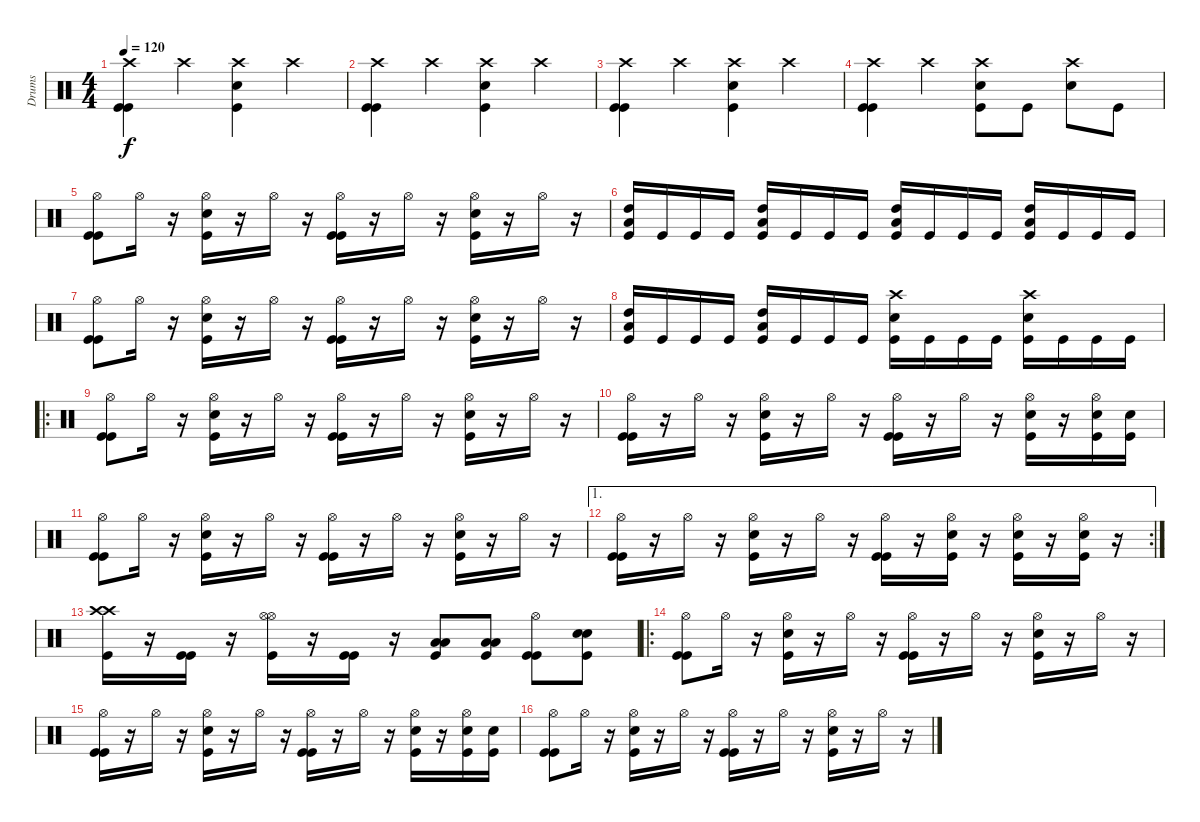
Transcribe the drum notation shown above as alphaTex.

\track ("Drums" "Drums") {instrument percussion}
\staff {score}
\articulation defaults
\ts (4 4)
\tempo 120
\clef neutral
\ks c
("Crash high (hit)" "Kick (hit)" "Kick (hit)").4{dy f} "Crash high (hit)".4 ("Crash high (hit)" "Snare (hit) 2" "Kick (hit)").4 "Crash high (hit)".4 |
("Crash high (hit)" "Kick (hit)" "Kick (hit)").4 "Crash high (hit)".4 ("Crash high (hit)" "Snare (hit) 2" "Kick (hit)").4 "Crash high (hit)".4 |
("Crash high (hit)" "Kick (hit)" "Kick (hit)").4 "Crash high (hit)".4 ("Crash high (hit)" "Snare (hit) 2" "Kick (hit)").4 "Crash high (hit)".4 |
("Crash high (hit)" "Kick (hit)" "Kick (hit)").4 "Crash high (hit)".4 ("Crash high (hit)" "Snare (hit) 2" "Kick (hit)").8 "Kick (hit)".8 ("Crash high (hit)" "Snare (hit) 2").8 "Kick (hit)".8 |
("Hi-Hat (open)" "Kick (hit)" "Kick (hit)").8 "Hi-Hat (open)".16 r.16 ("Hi-Hat (open)" "Snare (hit) 2" "Kick (hit)").16 r.16 "Hi-Hat (open)".16 r.16 ("Hi-Hat (open)" "Kick (hit)" "Kick (hit)").16 r.16 "Hi-Hat (open)".16 r.16 ("Hi-Hat (open)" "Snare (hit) 2" "Kick (hit)").16 r.16 "Hi-Hat (open)".16 r.16 |
("Low Tom (hit)" "High Tom (hit)" "Kick (hit)").16 "Kick (hit)".16 "Kick (hit)".16 "Kick (hit)".16 ("Low Tom (hit)" "High Tom (hit)" "Kick (hit)").16 "Kick (hit)".16 "Kick (hit)".16 "Kick (hit)".16 ("Low Tom (hit)" "High Tom (hit)" "Kick (hit)").16 "Kick (hit)".16 "Kick (hit)".16 "Kick (hit)".16 ("Low Tom (hit)" "High Tom (hit)" "Kick (hit)").16 "Kick (hit)".16 "Kick (hit)".16 "Kick (hit)".16 |
("Hi-Hat (open)" "Kick (hit)" "Kick (hit)").8 "Hi-Hat (open)".16 r.16 ("Hi-Hat (open)" "Snare (hit) 2" "Kick (hit)").16 r.16 "Hi-Hat (open)".16 r.16 ("Hi-Hat (open)" "Kick (hit)" "Kick (hit)").16 r.16 "Hi-Hat (open)".16 r.16 ("Hi-Hat (open)" "Snare (hit) 2" "Kick (hit)").16 r.16 "Hi-Hat (open)".16 r.16 |
("Low Tom (hit)" "High Tom (hit)" "Kick (hit)").16 "Kick (hit)".16 "Kick (hit)".16 "Kick (hit)".16 ("Low Tom (hit)" "High Tom (hit)" "Kick (hit)").16 "Kick (hit)".16 "Kick (hit)".16 "Kick (hit)".16 ("Crash high (hit)" "Snare (hit) 2" "Kick (hit)").16 "Kick (hit)".16 "Kick (hit)".16 "Kick (hit)".16 ("Crash high (hit)" "Snare (hit) 2" "Kick (hit)").16 "Kick (hit)".16 "Kick (hit)".16 "Kick (hit)".16 |
\ro
("Hi-Hat (open)" "Kick (hit)" "Kick (hit)").8 "Hi-Hat (open)".16 r.16 ("Hi-Hat (open)" "Snare (hit) 2" "Kick (hit)").16 r.16 "Hi-Hat (open)".16 r.16 ("Hi-Hat (open)" "Kick (hit)" "Kick (hit)").16 r.16 "Hi-Hat (open)".16 r.16 ("Hi-Hat (open)" "Snare (hit) 2" "Kick (hit)").16 r.16 "Hi-Hat (open)".16 r.16 |
("Hi-Hat (open)" "Kick (hit)" "Kick (hit)").16 r.16 "Hi-Hat (open)".16 r.16 ("Hi-Hat (open)" "Snare (hit) 2" "Kick (hit)").16 r.16 "Hi-Hat (open)".16 r.16 ("Hi-Hat (open)" "Kick (hit)" "Kick (hit)").16 r.16 "Hi-Hat (open)".16 r.16 ("Hi-Hat (open)" "Snare (hit) 2" "Kick (hit)").16 r.16 ("Hi-Hat (open)" "Snare (hit) 2" "Kick (hit)").16 ("Snare (hit) 2" "Kick (hit)").16 |
("Hi-Hat (open)" "Kick (hit)" "Kick (hit)").8 "Hi-Hat (open)".16 r.16 ("Hi-Hat (open)" "Snare (hit) 2" "Kick (hit)").16 r.16 "Hi-Hat (open)".16 r.16 ("Hi-Hat (open)" "Kick (hit)" "Kick (hit)").16 r.16 "Hi-Hat (open)".16 r.16 ("Hi-Hat (open)" "Snare (hit) 2" "Kick (hit)").16 r.16 "Hi-Hat (open)".16 r.16 |
\ae 1
\rc 2
("Hi-Hat (open)" "Kick (hit)" "Kick (hit)").16 r.16 "Hi-Hat (open)".16 r.16 ("Hi-Hat (open)" "Snare (hit) 2" "Kick (hit)").16 r.16 "Hi-Hat (open)".16 r.16 ("Hi-Hat (open)" "Kick (hit)" "Kick (hit)").16 r.16 ("Hi-Hat (open)" "Snare (hit) 2" "Kick (hit)").16 r.16 ("Hi-Hat (open)" "Snare (hit) 2" "Kick (hit)").16 r.16 ("Hi-Hat (open)" "Snare (hit) 2" "Kick (hit)").16 r.16 |
("Crash high (hit)" "Crash high (hit)" "Kick (hit)").16 r.16 ("Kick (hit)" "Kick (hit)").16 r.16 ("Hi-Hat (open)" "Hi-Hat (open)" "Kick (hit)").16 r.16 ("Kick (hit)" "Kick (hit)").16 r.16 ("Low Tom (hit)" "Low Tom (hit)" "Kick (hit)").8 ("Low Tom (hit)" "Low Tom (hit)" "Kick (hit)").8 ("Hi-Hat (open)" "Kick (hit)" "Kick (hit)").8 ("Snare (hit) 2" "Snare (hit) 2" "Kick (hit)").8 |
\ro
("Hi-Hat (open)" "Kick (hit)" "Kick (hit)").8 "Hi-Hat (open)".16 r.16 ("Hi-Hat (open)" "Snare (hit) 2" "Kick (hit)").16 r.16 "Hi-Hat (open)".16 r.16 ("Hi-Hat (open)" "Kick (hit)" "Kick (hit)").16 r.16 "Hi-Hat (open)".16 r.16 ("Hi-Hat (open)" "Snare (hit) 2" "Kick (hit)").16 r.16 "Hi-Hat (open)".16 r.16 |
("Hi-Hat (open)" "Kick (hit)" "Kick (hit)").16 r.16 "Hi-Hat (open)".16 r.16 ("Hi-Hat (open)" "Snare (hit) 2" "Kick (hit)").16 r.16 "Hi-Hat (open)".16 r.16 ("Hi-Hat (open)" "Kick (hit)" "Kick (hit)").16 r.16 "Hi-Hat (open)".16 r.16 ("Hi-Hat (open)" "Snare (hit) 2" "Kick (hit)").16 r.16 ("Hi-Hat (open)" "Snare (hit) 2" "Kick (hit)").16 ("Snare (hit) 2" "Kick (hit)").16 |
("Hi-Hat (open)" "Kick (hit)" "Kick (hit)").8 "Hi-Hat (open)".16 r.16 ("Hi-Hat (open)" "Snare (hit) 2" "Kick (hit)").16 r.16 "Hi-Hat (open)".16 r.16 ("Hi-Hat (open)" "Kick (hit)" "Kick (hit)").16 r.16 "Hi-Hat (open)".16 r.16 ("Hi-Hat (open)" "Snare (hit) 2" "Kick (hit)").16 r.16 "Hi-Hat (open)".16 r.16
